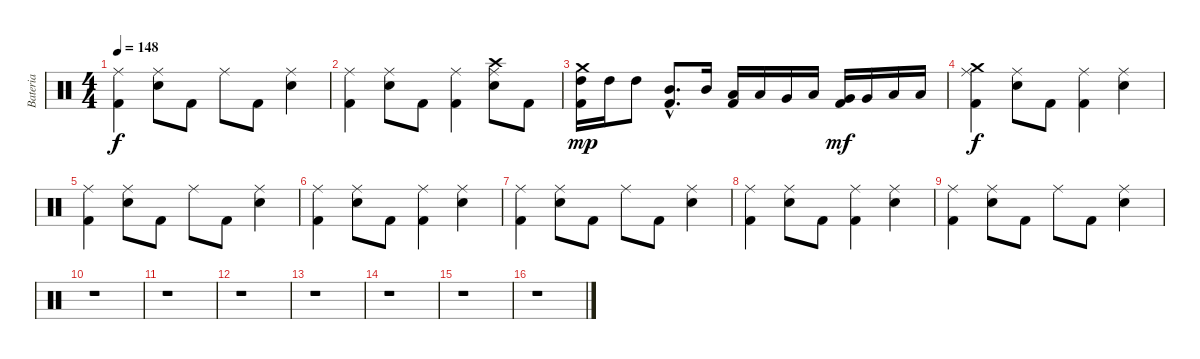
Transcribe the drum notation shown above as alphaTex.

\track ("Bateria" "Bateria") {instrument percussion}
\staff {score}
\articulation defaults
\ts (4 4)
\tempo 148
\clef neutral
\ks c
("Kick (hit) 2" "Ride (middle)").4{dy f} ("Electric Snare (hit)" "Ride (middle)").8 "Kick (hit) 2".8 "Ride (middle)".8 "Kick (hit) 2".8 ("Electric Snare (hit)" "Ride (middle)").4 |
("Kick (hit) 2" "Ride (middle)").4 ("Electric Snare (hit)" "Ride (middle)").8 "Kick (hit) 2".8 ("Kick (hit) 2" "Ride (middle)").4 ("Electric Snare (hit)" "Ride (middle)" "Crash high (hit)").8 "Kick (hit) 2".8 |
("Kick (hit) 2" "High Tom (hit)" "Crash medium (hit)").16{dy mp} "High Tom (hit)".16 "High Tom (hit)".8 ("Kick (hit) 2"{hac} "Mid Tom (hit)"{hac}).8{d} "Mid Tom (hit)".16 ("Kick (hit) 2" "Low Tom (hit)").16 "Low Tom (hit)".16 "Very Low Tom (hit)".16 "Low Floor Tom (hit)".16 ("Kick (hit) 2" "Very Low Tom (hit)").16{dy mf} "Very Low Tom (hit)".16 "Low Floor Tom (hit)".16 "Low Floor Tom (hit)".16 |
("Kick (hit) 2" "Crash medium (hit)" "Ride (middle)").4{dy f} ("Electric Snare (hit)" "Ride (middle)").8 "Kick (hit) 2".8 ("Kick (hit) 2" "Ride (middle)").4 ("Electric Snare (hit)" "Ride (middle)").4 |
("Kick (hit) 2" "Ride (middle)").4 ("Electric Snare (hit)" "Ride (middle)").8 "Kick (hit) 2".8 "Ride (middle)".8 "Kick (hit) 2".8 ("Electric Snare (hit)" "Ride (middle)").4 |
("Kick (hit) 2" "Ride (middle)").4 ("Electric Snare (hit)" "Ride (middle)").8 "Kick (hit) 2".8 ("Kick (hit) 2" "Ride (middle)").4 ("Electric Snare (hit)" "Ride (middle)").4 |
("Kick (hit) 2" "Ride (middle)").4 ("Electric Snare (hit)" "Ride (middle)").8 "Kick (hit) 2".8 "Ride (middle)".8 "Kick (hit) 2".8 ("Electric Snare (hit)" "Ride (middle)").4 |
("Kick (hit) 2" "Ride (middle)").4 ("Electric Snare (hit)" "Ride (middle)").8 "Kick (hit) 2".8 ("Kick (hit) 2" "Ride (middle)").4 ("Electric Snare (hit)" "Ride (middle)").4 |
("Kick (hit) 2" "Ride (middle)").4 ("Electric Snare (hit)" "Ride (middle)").8 "Kick (hit) 2".8 "Ride (middle)".8 "Kick (hit) 2".8 ("Electric Snare (hit)" "Ride (middle)").4 |
r.1 |
r.1 |
r.1 |
r.1 |
r.1 |
r.1 |
r.1
